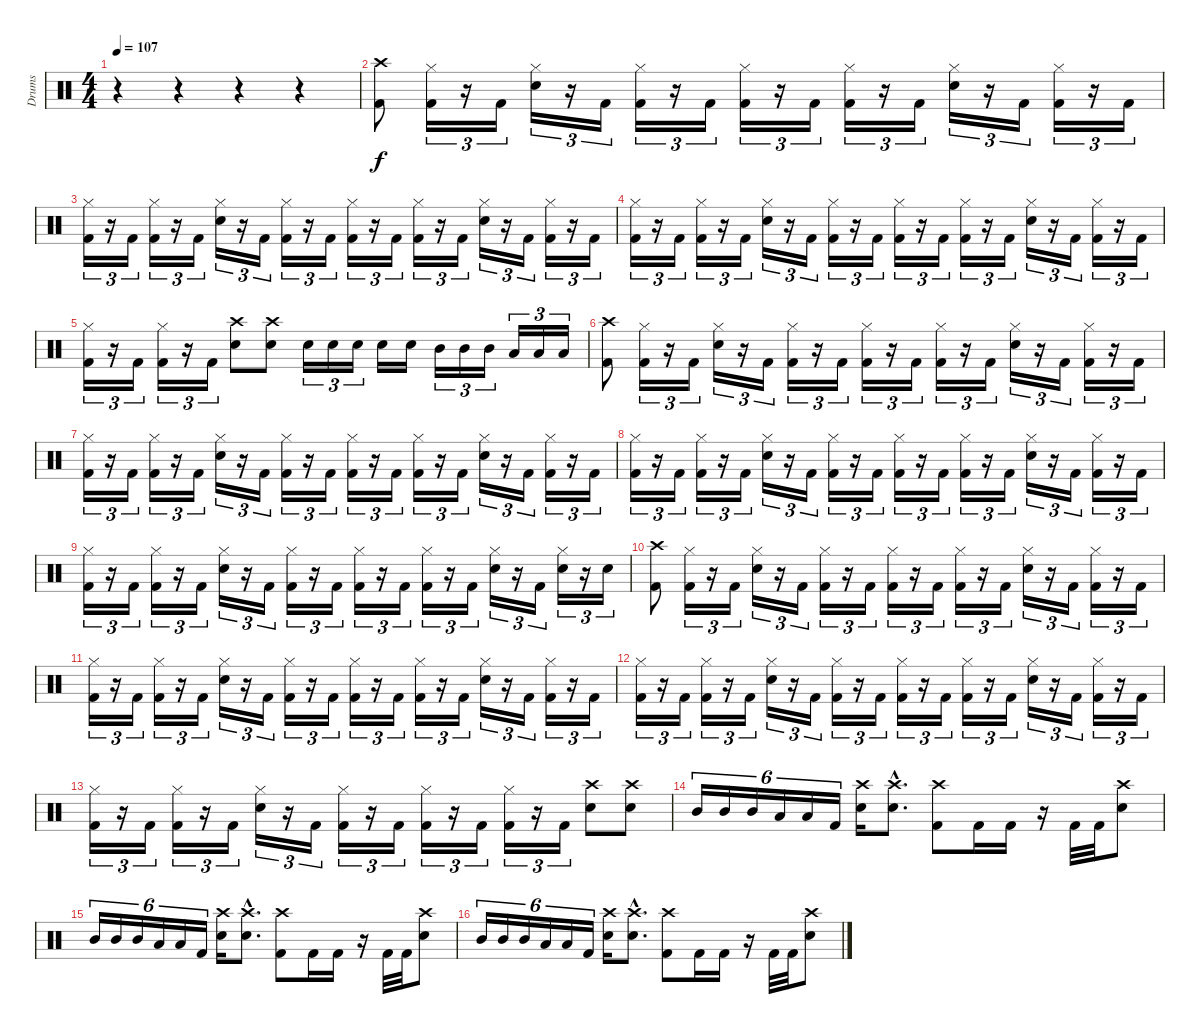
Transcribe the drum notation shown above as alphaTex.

\track ("Drums" "Drums") {instrument percussion}
\staff {score}
\articulation defaults
\ts (4 4)
\tempo 107
\clef neutral
\ks c
r.4{dy f} r.4 r.4 r.4 |
("Crash high (hit)" "Kick (hit) 2").8{balance 8} ("Hi-Hat (closed)" "Kick (hit) 2").16{tu (3 2)} r.16{tu (3 2)} "Kick (hit) 2".16{tu (3 2)} ("Hi-Hat (closed)" "Electric Snare (hit)").16{tu (3 2)} r.16{tu (3 2)} "Kick (hit) 2".16{tu (3 2)} ("Hi-Hat (closed)" "Kick (hit) 2").16{tu (3 2)} r.16{tu (3 2)} "Kick (hit) 2".16{tu (3 2)} ("Hi-Hat (closed)" "Kick (hit) 2").16{tu (3 2)} r.16{tu (3 2)} "Kick (hit) 2".16{tu (3 2)} ("Hi-Hat (closed)" "Kick (hit) 2").16{tu (3 2)} r.16{tu (3 2)} "Kick (hit) 2".16{tu (3 2)} ("Hi-Hat (closed)" "Electric Snare (hit)").16{tu (3 2)} r.16{tu (3 2)} "Kick (hit) 2".16{tu (3 2)} ("Hi-Hat (closed)" "Kick (hit) 2").16{tu (3 2)} r.16{tu (3 2)} "Kick (hit) 2".16{tu (3 2)} |
("Hi-Hat (closed)" "Kick (hit) 2").16{tu (3 2)} r.16{tu (3 2)} "Kick (hit) 2".16{tu (3 2)} ("Hi-Hat (closed)" "Kick (hit) 2").16{tu (3 2)} r.16{tu (3 2)} "Kick (hit) 2".16{tu (3 2)} ("Hi-Hat (closed)" "Electric Snare (hit)").16{tu (3 2)} r.16{tu (3 2)} "Kick (hit) 2".16{tu (3 2)} ("Hi-Hat (closed)" "Kick (hit) 2").16{tu (3 2)} r.16{tu (3 2)} "Kick (hit) 2".16{tu (3 2)} ("Hi-Hat (closed)" "Kick (hit) 2").16{tu (3 2)} r.16{tu (3 2)} "Kick (hit) 2".16{tu (3 2)} ("Hi-Hat (closed)" "Kick (hit) 2").16{tu (3 2)} r.16{tu (3 2)} "Kick (hit) 2".16{tu (3 2)} ("Hi-Hat (closed)" "Electric Snare (hit)").16{tu (3 2)} r.16{tu (3 2)} "Kick (hit) 2".16{tu (3 2)} ("Hi-Hat (closed)" "Kick (hit) 2").16{tu (3 2)} r.16{tu (3 2)} "Kick (hit) 2".16{tu (3 2)} |
("Hi-Hat (closed)" "Kick (hit) 2").16{tu (3 2)} r.16{tu (3 2)} "Kick (hit) 2".16{tu (3 2)} ("Hi-Hat (closed)" "Kick (hit) 2").16{tu (3 2)} r.16{tu (3 2)} "Kick (hit) 2".16{tu (3 2)} ("Hi-Hat (closed)" "Electric Snare (hit)").16{tu (3 2)} r.16{tu (3 2)} "Kick (hit) 2".16{tu (3 2)} ("Hi-Hat (closed)" "Kick (hit) 2").16{tu (3 2)} r.16{tu (3 2)} "Kick (hit) 2".16{tu (3 2)} ("Hi-Hat (closed)" "Kick (hit) 2").16{tu (3 2)} r.16{tu (3 2)} "Kick (hit) 2".16{tu (3 2)} ("Hi-Hat (closed)" "Kick (hit) 2").16{tu (3 2)} r.16{tu (3 2)} "Kick (hit) 2".16{tu (3 2)} ("Hi-Hat (closed)" "Electric Snare (hit)").16{tu (3 2)} r.16{tu (3 2)} "Kick (hit) 2".16{tu (3 2)} ("Hi-Hat (closed)" "Kick (hit) 2").16{tu (3 2)} r.16{tu (3 2)} "Kick (hit) 2".16{tu (3 2)} |
("Hi-Hat (closed)" "Kick (hit) 2").16{tu (3 2)} r.16{tu (3 2)} "Kick (hit) 2".16{tu (3 2)} ("Hi-Hat (closed)" "Kick (hit) 2").16{tu (3 2)} r.16{tu (3 2)} "Kick (hit) 2".16{tu (3 2)} ("Crash high (hit)" "Electric Snare (hit)").8 ("Crash high (hit)" "Electric Snare (hit)").8 "Electric Snare (hit)".16{tu (3 2)} "Electric Snare (hit)".16{tu (3 2)} "Electric Snare (hit)".16{tu (3 2)} "Electric Snare (hit)".16 "Electric Snare (hit)".16 "Mid Tom (hit)".16{tu (3 2)} "Mid Tom (hit)".16{tu (3 2)} "Mid Tom (hit)".16{tu (3 2)} "Low Tom (hit)".16{tu (3 2)} "Low Tom (hit)".16{tu (3 2)} "Low Tom (hit)".16{tu (3 2)} |
("Crash high (hit)" "Kick (hit) 2").8{balance 8} ("Hi-Hat (closed)" "Kick (hit) 2").16{tu (3 2)} r.16{tu (3 2)} "Kick (hit) 2".16{tu (3 2)} ("Hi-Hat (closed)" "Electric Snare (hit)").16{tu (3 2)} r.16{tu (3 2)} "Kick (hit) 2".16{tu (3 2)} ("Hi-Hat (closed)" "Kick (hit) 2").16{tu (3 2)} r.16{tu (3 2)} "Kick (hit) 2".16{tu (3 2)} ("Hi-Hat (closed)" "Kick (hit) 2").16{tu (3 2)} r.16{tu (3 2)} "Kick (hit) 2".16{tu (3 2)} ("Hi-Hat (closed)" "Kick (hit) 2").16{tu (3 2)} r.16{tu (3 2)} "Kick (hit) 2".16{tu (3 2)} ("Hi-Hat (closed)" "Electric Snare (hit)").16{tu (3 2)} r.16{tu (3 2)} "Kick (hit) 2".16{tu (3 2)} ("Hi-Hat (closed)" "Kick (hit) 2").16{tu (3 2)} r.16{tu (3 2)} "Kick (hit) 2".16{tu (3 2)} |
("Hi-Hat (closed)" "Kick (hit) 2").16{tu (3 2)} r.16{tu (3 2)} "Kick (hit) 2".16{tu (3 2)} ("Hi-Hat (closed)" "Kick (hit) 2").16{tu (3 2)} r.16{tu (3 2)} "Kick (hit) 2".16{tu (3 2)} ("Hi-Hat (closed)" "Electric Snare (hit)").16{tu (3 2)} r.16{tu (3 2)} "Kick (hit) 2".16{tu (3 2)} ("Hi-Hat (closed)" "Kick (hit) 2").16{tu (3 2)} r.16{tu (3 2)} "Kick (hit) 2".16{tu (3 2)} ("Hi-Hat (closed)" "Kick (hit) 2").16{tu (3 2)} r.16{tu (3 2)} "Kick (hit) 2".16{tu (3 2)} ("Hi-Hat (closed)" "Kick (hit) 2").16{tu (3 2)} r.16{tu (3 2)} "Kick (hit) 2".16{tu (3 2)} ("Hi-Hat (closed)" "Electric Snare (hit)").16{tu (3 2)} r.16{tu (3 2)} "Kick (hit) 2".16{tu (3 2)} ("Hi-Hat (closed)" "Kick (hit) 2").16{tu (3 2)} r.16{tu (3 2)} "Kick (hit) 2".16{tu (3 2)} |
("Hi-Hat (closed)" "Kick (hit) 2").16{tu (3 2)} r.16{tu (3 2)} "Kick (hit) 2".16{tu (3 2)} ("Hi-Hat (closed)" "Kick (hit) 2").16{tu (3 2)} r.16{tu (3 2)} "Kick (hit) 2".16{tu (3 2)} ("Hi-Hat (closed)" "Electric Snare (hit)").16{tu (3 2)} r.16{tu (3 2)} "Kick (hit) 2".16{tu (3 2)} ("Hi-Hat (closed)" "Kick (hit) 2").16{tu (3 2)} r.16{tu (3 2)} "Kick (hit) 2".16{tu (3 2)} ("Hi-Hat (closed)" "Kick (hit) 2").16{tu (3 2)} r.16{tu (3 2)} "Kick (hit) 2".16{tu (3 2)} ("Hi-Hat (closed)" "Kick (hit) 2").16{tu (3 2)} r.16{tu (3 2)} "Kick (hit) 2".16{tu (3 2)} ("Hi-Hat (closed)" "Electric Snare (hit)").16{tu (3 2)} r.16{tu (3 2)} "Kick (hit) 2".16{tu (3 2)} ("Hi-Hat (closed)" "Kick (hit) 2").16{tu (3 2)} r.16{tu (3 2)} "Kick (hit) 2".16{tu (3 2)} |
("Hi-Hat (closed)" "Kick (hit) 2").16{tu (3 2)} r.16{tu (3 2)} "Kick (hit) 2".16{tu (3 2)} ("Hi-Hat (closed)" "Kick (hit) 2").16{tu (3 2)} r.16{tu (3 2)} "Kick (hit) 2".16{tu (3 2)} ("Hi-Hat (closed)" "Electric Snare (hit)").16{tu (3 2)} r.16{tu (3 2)} "Kick (hit) 2".16{tu (3 2)} ("Hi-Hat (closed)" "Kick (hit) 2").16{tu (3 2)} r.16{tu (3 2)} "Kick (hit) 2".16{tu (3 2)} ("Hi-Hat (closed)" "Kick (hit) 2").16{tu (3 2)} r.16{tu (3 2)} "Kick (hit) 2".16{tu (3 2)} ("Hi-Hat (closed)" "Kick (hit) 2").16{tu (3 2)} r.16{tu (3 2)} "Kick (hit) 2".16{tu (3 2)} ("Hi-Hat (closed)" "Electric Snare (hit)").16{tu (3 2)} r.16{tu (3 2)} "Kick (hit) 2".16{tu (3 2)} ("Hi-Hat (closed)" "Electric Snare (hit)").16{tu (3 2)} r.16{tu (3 2)} "Electric Snare (hit)".16{tu (3 2)} |
("Crash high (hit)" "Kick (hit) 2").8{balance 8} ("Hi-Hat (closed)" "Kick (hit) 2").16{tu (3 2)} r.16{tu (3 2)} "Kick (hit) 2".16{tu (3 2)} ("Hi-Hat (closed)" "Electric Snare (hit)").16{tu (3 2)} r.16{tu (3 2)} "Kick (hit) 2".16{tu (3 2)} ("Hi-Hat (closed)" "Kick (hit) 2").16{tu (3 2)} r.16{tu (3 2)} "Kick (hit) 2".16{tu (3 2)} ("Hi-Hat (closed)" "Kick (hit) 2").16{tu (3 2)} r.16{tu (3 2)} "Kick (hit) 2".16{tu (3 2)} ("Hi-Hat (closed)" "Kick (hit) 2").16{tu (3 2)} r.16{tu (3 2)} "Kick (hit) 2".16{tu (3 2)} ("Hi-Hat (closed)" "Electric Snare (hit)").16{tu (3 2)} r.16{tu (3 2)} "Kick (hit) 2".16{tu (3 2)} ("Hi-Hat (closed)" "Kick (hit) 2").16{tu (3 2)} r.16{tu (3 2)} "Kick (hit) 2".16{tu (3 2)} |
("Hi-Hat (closed)" "Kick (hit) 2").16{tu (3 2)} r.16{tu (3 2)} "Kick (hit) 2".16{tu (3 2)} ("Hi-Hat (closed)" "Kick (hit) 2").16{tu (3 2)} r.16{tu (3 2)} "Kick (hit) 2".16{tu (3 2)} ("Hi-Hat (closed)" "Electric Snare (hit)").16{tu (3 2)} r.16{tu (3 2)} "Kick (hit) 2".16{tu (3 2)} ("Hi-Hat (closed)" "Kick (hit) 2").16{tu (3 2)} r.16{tu (3 2)} "Kick (hit) 2".16{tu (3 2)} ("Hi-Hat (closed)" "Kick (hit) 2").16{tu (3 2)} r.16{tu (3 2)} "Kick (hit) 2".16{tu (3 2)} ("Hi-Hat (closed)" "Kick (hit) 2").16{tu (3 2)} r.16{tu (3 2)} "Kick (hit) 2".16{tu (3 2)} ("Hi-Hat (closed)" "Electric Snare (hit)").16{tu (3 2)} r.16{tu (3 2)} "Kick (hit) 2".16{tu (3 2)} ("Hi-Hat (closed)" "Kick (hit) 2").16{tu (3 2)} r.16{tu (3 2)} "Kick (hit) 2".16{tu (3 2)} |
("Hi-Hat (closed)" "Kick (hit) 2").16{tu (3 2)} r.16{tu (3 2)} "Kick (hit) 2".16{tu (3 2)} ("Hi-Hat (closed)" "Kick (hit) 2").16{tu (3 2)} r.16{tu (3 2)} "Kick (hit) 2".16{tu (3 2)} ("Hi-Hat (closed)" "Electric Snare (hit)").16{tu (3 2)} r.16{tu (3 2)} "Kick (hit) 2".16{tu (3 2)} ("Hi-Hat (closed)" "Kick (hit) 2").16{tu (3 2)} r.16{tu (3 2)} "Kick (hit) 2".16{tu (3 2)} ("Hi-Hat (closed)" "Kick (hit) 2").16{tu (3 2)} r.16{tu (3 2)} "Kick (hit) 2".16{tu (3 2)} ("Hi-Hat (closed)" "Kick (hit) 2").16{tu (3 2)} r.16{tu (3 2)} "Kick (hit) 2".16{tu (3 2)} ("Hi-Hat (closed)" "Electric Snare (hit)").16{tu (3 2)} r.16{tu (3 2)} "Kick (hit) 2".16{tu (3 2)} ("Hi-Hat (closed)" "Kick (hit) 2").16{tu (3 2)} r.16{tu (3 2)} "Kick (hit) 2".16{tu (3 2)} |
("Hi-Hat (closed)" "Kick (hit) 2").16{tu (3 2)} r.16{tu (3 2)} "Kick (hit) 2".16{tu (3 2)} ("Hi-Hat (closed)" "Kick (hit) 2").16{tu (3 2)} r.16{tu (3 2)} "Kick (hit) 2".16{tu (3 2)} ("Hi-Hat (closed)" "Electric Snare (hit)").16{tu (3 2)} r.16{tu (3 2)} "Kick (hit) 2".16{tu (3 2)} ("Hi-Hat (closed)" "Kick (hit) 2").16{tu (3 2)} r.16{tu (3 2)} "Kick (hit) 2".16{tu (3 2)} ("Hi-Hat (closed)" "Kick (hit) 2").16{tu (3 2)} r.16{tu (3 2)} "Kick (hit) 2".16{tu (3 2)} ("Hi-Hat (closed)" "Kick (hit) 2").16{tu (3 2)} r.16{tu (3 2)} "Kick (hit) 2".16{tu (3 2)} ("Crash high (hit)" "Electric Snare (hit)").8 ("Crash high (hit)" "Electric Snare (hit)").8 |
"Mid Tom (hit)".16{tu (6 4)} "Mid Tom (hit)".16{tu (6 4)} "Mid Tom (hit)".16{tu (6 4)} "Low Tom (hit)".16{tu (6 4)} "Low Tom (hit)".16{tu (6 4)} "Kick (hit) 2".16{tu (6 4)} ("Crash high (hit)" "Electric Snare (hit)").16 ("Crash high (hit)"{hac} "Electric Snare (hit)"{hac}).8{d} ("Crash high (hit)" "Kick (hit) 2").8 "Kick (hit) 2".16 "Kick (hit) 2".16 r.16 "Kick (hit) 2".32 "Kick (hit) 2".32 ("Crash high (hit)" "Electric Snare (hit)").8 |
"Mid Tom (hit)".16{tu (6 4)} "Mid Tom (hit)".16{tu (6 4)} "Mid Tom (hit)".16{tu (6 4)} "Low Tom (hit)".16{tu (6 4)} "Low Tom (hit)".16{tu (6 4)} "Kick (hit) 2".16{tu (6 4)} ("Crash high (hit)" "Electric Snare (hit)").16 ("Crash high (hit)"{hac} "Electric Snare (hit)"{hac}).8{d} ("Crash high (hit)" "Kick (hit) 2").8 "Kick (hit) 2".16 "Kick (hit) 2".16 r.16 "Kick (hit) 2".32 "Kick (hit) 2".32 ("Crash high (hit)" "Electric Snare (hit)").8 |
"Mid Tom (hit)".16{tu (6 4)} "Mid Tom (hit)".16{tu (6 4)} "Mid Tom (hit)".16{tu (6 4)} "Low Tom (hit)".16{tu (6 4)} "Low Tom (hit)".16{tu (6 4)} "Kick (hit) 2".16{tu (6 4)} ("Crash high (hit)" "Electric Snare (hit)").16 ("Crash high (hit)"{hac} "Electric Snare (hit)"{hac}).8{d} ("Crash high (hit)" "Kick (hit) 2").8 "Kick (hit) 2".16 "Kick (hit) 2".16 r.16 "Kick (hit) 2".32 "Kick (hit) 2".32 ("Crash high (hit)" "Electric Snare (hit)").8
